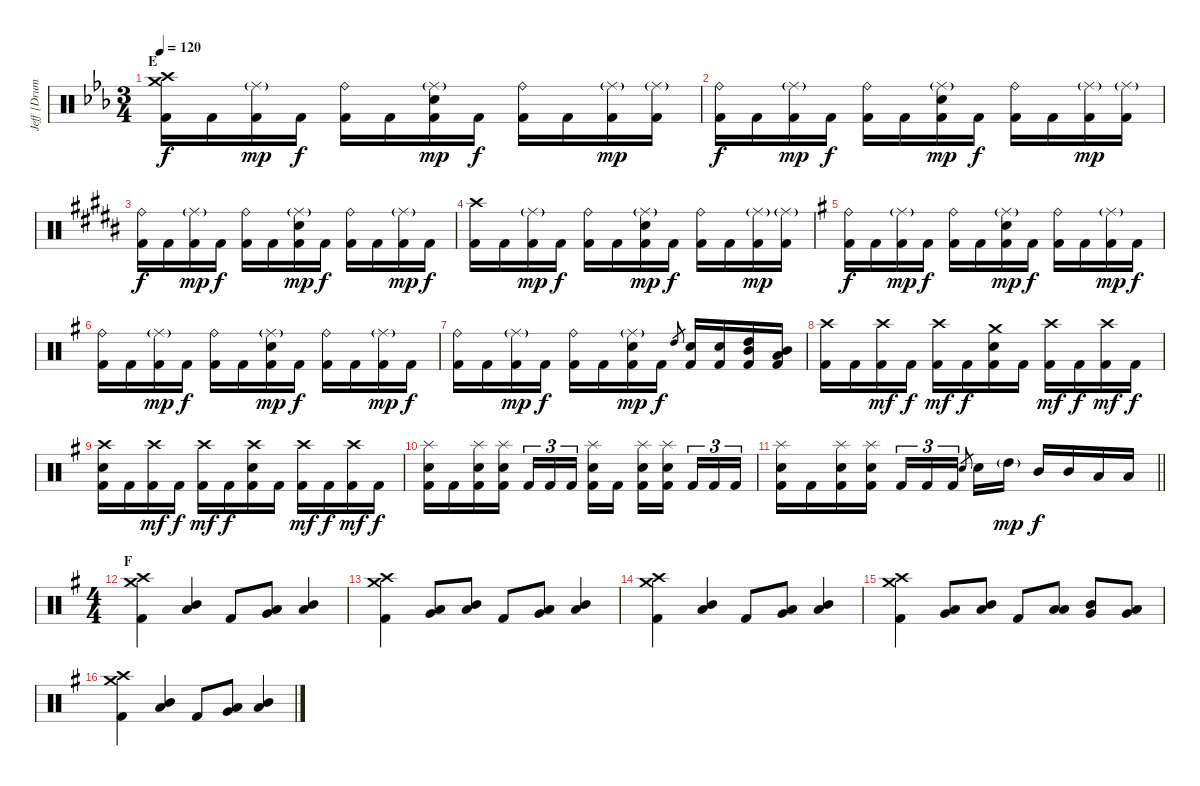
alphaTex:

\track ("Jeff [Drums]" "Jeff [Drum") {instrument percussion}
\staff {score}
\articulation defaults
\ts (3 4)
\section ("" "E")
\tempo 120
\clef neutral
\ks eb
("Crash high (hit)" "Crash medium (hit)" "Kick (hit) 2").16{dy f} "Kick (hit) 2".16 ("Ride (middle)"{g} "Kick (hit) 2").16{dy mp} "Kick (hit) 2".16{dy f} ("Ride (bell)" "Kick (hit) 2").16 "Kick (hit) 2".16 ("Ride (middle)"{g} "Electric Snare (hit)" "Kick (hit) 2").16{dy mp} "Kick (hit) 2".16{dy f} ("Ride (bell)" "Kick (hit) 2").16 "Kick (hit) 2".16 ("Ride (middle)"{g} "Kick (hit) 2").16{dy mp} ("Ride (middle)"{g} "Kick (hit) 2").16 |
("Ride (bell)" "Kick (hit) 2").16{dy f} "Kick (hit) 2".16 ("Ride (middle)"{g} "Kick (hit) 2").16{dy mp} "Kick (hit) 2".16{dy f} ("Ride (bell)" "Kick (hit) 2").16 "Kick (hit) 2".16 ("Ride (middle)"{g} "Electric Snare (hit)" "Kick (hit) 2").16{dy mp} "Kick (hit) 2".16{dy f} ("Ride (bell)" "Kick (hit) 2").16 "Kick (hit) 2".16 ("Ride (middle)"{g} "Kick (hit) 2").16{dy mp} ("Ride (middle)"{g} "Kick (hit) 2").16 |
\ks b
("Ride (bell)" "Kick (hit) 2").16{dy f} "Kick (hit) 2".16 ("Ride (middle)"{g} "Kick (hit) 2").16{dy mp} "Kick (hit) 2".16{dy f} ("Ride (bell)" "Kick (hit) 2").16 "Kick (hit) 2".16 ("Ride (middle)"{g} "Electric Snare (hit)" "Kick (hit) 2").16{dy mp} "Kick (hit) 2".16{dy f} ("Ride (bell)" "Kick (hit) 2").16 "Kick (hit) 2".16 ("Ride (middle)"{g} "Kick (hit) 2").16{dy mp} "Kick (hit) 2".16{dy f} |
("Crash high (hit)" "Kick (hit) 2").16 "Kick (hit) 2".16 ("Ride (middle)"{g} "Kick (hit) 2").16{dy mp} "Kick (hit) 2".16{dy f} ("Ride (bell)" "Kick (hit) 2").16 "Kick (hit) 2".16 ("Ride (middle)"{g} "Electric Snare (hit)" "Kick (hit) 2").16{dy mp} "Kick (hit) 2".16{dy f} ("Ride (bell)" "Kick (hit) 2").16 "Kick (hit) 2".16 ("Ride (middle)"{g} "Kick (hit) 2").16{dy mp} ("Ride (middle)"{g} "Kick (hit) 2").16 |
\ks g
("Ride (bell)" "Kick (hit) 2").16{dy f} "Kick (hit) 2".16 ("Ride (middle)"{g} "Kick (hit) 2").16{dy mp} "Kick (hit) 2".16{dy f} ("Ride (bell)" "Kick (hit) 2").16 "Kick (hit) 2".16 ("Ride (middle)"{g} "Electric Snare (hit)" "Kick (hit) 2").16{dy mp} "Kick (hit) 2".16{dy f} ("Ride (bell)" "Kick (hit) 2").16 "Kick (hit) 2".16 ("Ride (middle)"{g} "Kick (hit) 2").16{dy mp} "Kick (hit) 2".16{dy f} |
("Ride (bell)" "Kick (hit) 2").16 "Kick (hit) 2".16 ("Ride (middle)"{g} "Kick (hit) 2").16{dy mp} "Kick (hit) 2".16{dy f} ("Ride (bell)" "Kick (hit) 2").16 "Kick (hit) 2".16 ("Ride (middle)"{g} "Electric Snare (hit)" "Kick (hit) 2").16{dy mp} "Kick (hit) 2".16{dy f} ("Ride (bell)" "Kick (hit) 2").16 "Kick (hit) 2".16 ("Ride (middle)"{g} "Kick (hit) 2").16{dy mp} "Kick (hit) 2".16{dy f} |
("Ride (bell)" "Kick (hit) 2").16 "Kick (hit) 2".16 ("Ride (middle)"{g} "Kick (hit) 2").16{dy mp} "Kick (hit) 2".16{dy f} ("Ride (bell)" "Kick (hit) 2").16 "Kick (hit) 2".16 ("Ride (middle)"{g} "Electric Snare (hit)" "Kick (hit) 2").16{dy mp} "Kick (hit) 2".16{dy f} "High Tom (hit)".8{gr} ("Electric Snare (hit)" "Kick (hit) 2").16 ("Electric Snare (hit)" "Kick (hit) 2").16 ("High Tom (hit)" "Mid Tom (hit)" "Kick (hit) 2").16 ("Mid Tom (hit)" "Low Tom (hit)" "Kick (hit) 2").16 |
("Crash high (hit)" "Kick (hit) 2").16 "Kick (hit) 2".16 ("Crash high (hit)" "Kick (hit) 2").16{dy mf} "Kick (hit) 2".16{dy f} ("Crash high (hit)" "Kick (hit) 2").16{dy mf} "Kick (hit) 2".16{dy f} ("Crash medium (hit)" "Electric Snare (hit)" "Kick (hit) 2").16 "Kick (hit) 2".16 ("Crash high (hit)" "Kick (hit) 2").16{dy mf} "Kick (hit) 2".16{dy f} ("Crash high (hit)" "Kick (hit) 2").16{dy mf} "Kick (hit) 2".16{dy f} |
("Crash high (hit)" "Electric Snare (hit)" "Kick (hit) 2").16 "Kick (hit) 2".16 ("Crash high (hit)" "Kick (hit) 2").16{dy mf} "Kick (hit) 2".16{dy f} ("Crash high (hit)" "Kick (hit) 2").16{dy mf} "Kick (hit) 2".16{dy f} ("Crash high (hit)" "Electric Snare (hit)" "Kick (hit) 2").16 "Kick (hit) 2".16 ("Crash high (hit)" "Kick (hit) 2").16{dy mf} "Kick (hit) 2".16{dy f} ("Crash high (hit)" "Kick (hit) 2").16{dy mf} "Kick (hit) 2".16{dy f} |
("Splash (hit)" "Electric Snare (hit)" "Kick (hit) 2").16 "Kick (hit) 2".16 ("Splash (hit)" "Electric Snare (hit)" "Kick (hit) 2").16 ("Splash (hit)" "Electric Snare (hit)" "Kick (hit) 2").16 "Kick (hit) 2".16{tu (3 2)} "Kick (hit) 2".16{tu (3 2)} "Kick (hit) 2".16{tu (3 2) beam splitsecondary} ("Splash (hit)" "Electric Snare (hit)" "Kick (hit) 2").16 "Kick (hit) 2".16 ("Splash (hit)" "Electric Snare (hit)" "Kick (hit) 2").16 ("Splash (hit)" "Electric Snare (hit)" "Kick (hit) 2").16{beam splitsecondary} "Kick (hit) 2".16{tu (3 2)} "Kick (hit) 2".16{tu (3 2)} "Kick (hit) 2".16{tu (3 2)} |
\barLineRight lightlight
("Splash (hit)" "Electric Snare (hit)" "Kick (hit) 2").16 "Kick (hit) 2".16 ("Splash (hit)" "Electric Snare (hit)" "Kick (hit) 2").16 ("Splash (hit)" "Electric Snare (hit)" "Kick (hit) 2").16 "Kick (hit) 2".16{tu (3 2)} "Kick (hit) 2".16{tu (3 2)} "Kick (hit) 2".16{tu (3 2)} "Electric Snare (hit)".8{gr beam splitsecondary} "Electric Snare (hit)".16 "High Tom (hit)"{g}.16{dy mp} "Mid Tom (hit)".16{dy f} "Mid Tom (hit)".16 "Low Tom (hit)".16 "Low Tom (hit)".16 |
\ts (4 4)
\section ("" "F")
("Crash high (hit)" "Crash medium (hit)" "Kick (hit) 2").4 ("Mid Tom (hit)" "Low Tom (hit)").4 "Kick (hit) 2".8 ("Low Tom (hit)" "Very Low Tom (hit)").8 ("Mid Tom (hit)" "Low Tom (hit)").4 |
("Crash high (hit)" "Crash medium (hit)" "Kick (hit) 2").4 ("Low Tom (hit)" "Very Low Tom (hit)").8 ("Mid Tom (hit)" "Low Tom (hit)").8 "Kick (hit) 2".8 ("Low Tom (hit)" "Very Low Tom (hit)").8 ("Mid Tom (hit)" "Low Tom (hit)").4 |
("Crash high (hit)" "Crash medium (hit)" "Kick (hit) 2").4 ("Mid Tom (hit)" "Low Tom (hit)").4 "Kick (hit) 2".8 ("Low Tom (hit)" "Very Low Tom (hit)").8 ("Mid Tom (hit)" "Low Tom (hit)").4 |
("Crash high (hit)" "Crash medium (hit)" "Kick (hit) 2").4 ("Low Tom (hit)" "Very Low Tom (hit)").8 ("Mid Tom (hit)" "Low Tom (hit)").8 "Kick (hit) 2".8 ("Low Tom (hit)" "Low Floor Tom (hit)").8 ("Mid Tom (hit)" "Very Low Tom (hit)").8 ("Low Tom (hit)" "Very Low Tom (hit)").8 |
("Crash high (hit)" "Crash medium (hit)" "Kick (hit) 2").4 ("Mid Tom (hit)" "Low Tom (hit)").4 "Kick (hit) 2".8 ("Low Tom (hit)" "Very Low Tom (hit)").8 ("Mid Tom (hit)" "Low Tom (hit)").4
